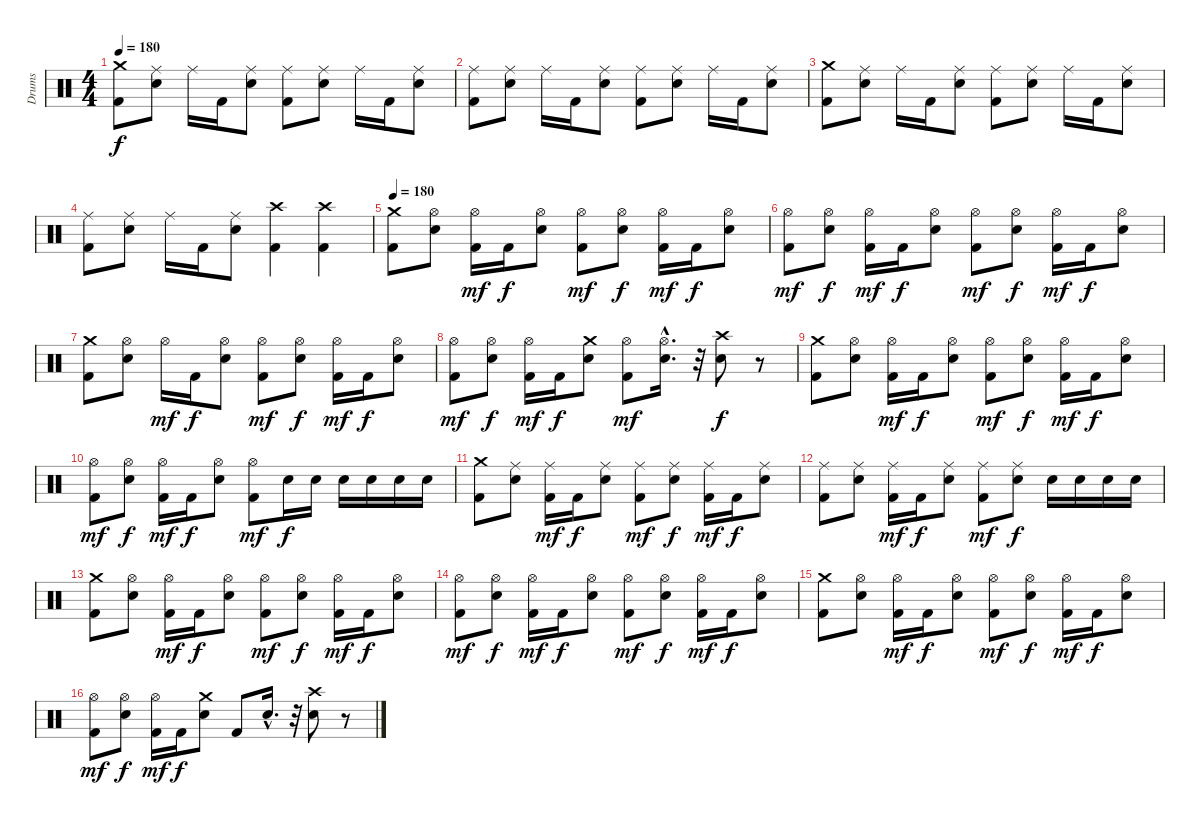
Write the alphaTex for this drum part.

\track ("Drums" "Drums") {instrument percussion}
\staff {score}
\articulation defaults
\ts (4 4)
\tempo 180
\clef neutral
\ks c
("Crash medium (hit)" "Kick (hit) 2").8{dy f} ("Ride (middle)" "Electric Snare (hit)").8 "Ride (middle)".16 "Kick (hit) 2".16 ("Ride (middle)" "Electric Snare (hit)").8 ("Ride (middle)" "Kick (hit) 2").8 ("Ride (middle)" "Electric Snare (hit)").8 "Ride (middle)".16 "Kick (hit) 2".16 ("Ride (middle)" "Electric Snare (hit)").8 |
("Ride (middle)" "Kick (hit) 2").8 ("Ride (middle)" "Electric Snare (hit)").8 "Ride (middle)".16 "Kick (hit) 2".16 ("Ride (middle)" "Electric Snare (hit)").8 ("Ride (middle)" "Kick (hit) 2").8 ("Ride (middle)" "Electric Snare (hit)").8 "Ride (middle)".16 "Kick (hit) 2".16 ("Ride (middle)" "Electric Snare (hit)").8 |
("Crash medium (hit)" "Kick (hit) 2").8 ("Ride (middle)" "Electric Snare (hit)").8 "Ride (middle)".16 "Kick (hit) 2".16 ("Ride (middle)" "Electric Snare (hit)").8 ("Ride (middle)" "Kick (hit) 2").8 ("Ride (middle)" "Electric Snare (hit)").8 "Ride (middle)".16 "Kick (hit) 2".16 ("Ride (middle)" "Electric Snare (hit)").8 |
("Ride (middle)" "Kick (hit) 2").8 ("Ride (middle)" "Electric Snare (hit)").8 "Ride (middle)".16 "Kick (hit) 2".16 ("Ride (middle)" "Electric Snare (hit)").8 ("Crash high (hit)" "Kick (hit) 2").4 ("Crash high (hit)" "Kick (hit) 2").4 |
\tempo 180
("Crash medium (hit)" "Kick (hit) 2").8 ("Hi-Hat (open)" "Electric Snare (hit)").8 ("Hi-Hat (open)" "Kick (hit) 2").16{dy mf} "Kick (hit) 2".16{dy f} ("Hi-Hat (open)" "Electric Snare (hit)").8 ("Hi-Hat (open)" "Kick (hit) 2").8{dy mf} ("Hi-Hat (open)" "Electric Snare (hit)").8{dy f} ("Hi-Hat (open)" "Kick (hit) 2").16{dy mf} "Kick (hit) 2".16{dy f} ("Hi-Hat (open)" "Electric Snare (hit)").8 |
("Hi-Hat (open)" "Kick (hit) 2").8{dy mf} ("Hi-Hat (open)" "Electric Snare (hit)").8{dy f} ("Hi-Hat (open)" "Kick (hit) 2").16{dy mf} "Kick (hit) 2".16{dy f} ("Hi-Hat (open)" "Electric Snare (hit)").8 ("Hi-Hat (open)" "Kick (hit) 2").8{dy mf} ("Hi-Hat (open)" "Electric Snare (hit)").8{dy f} ("Hi-Hat (open)" "Kick (hit) 2").16{dy mf} "Kick (hit) 2".16{dy f} ("Hi-Hat (open)" "Electric Snare (hit)").8 |
("Crash medium (hit)" "Kick (hit) 2").8 ("Hi-Hat (open)" "Electric Snare (hit)").8 "Hi-Hat (open)".16{dy mf} "Kick (hit) 2".16{dy f} ("Hi-Hat (open)" "Electric Snare (hit)").8 ("Hi-Hat (open)" "Kick (hit) 2").8{dy mf} ("Hi-Hat (open)" "Electric Snare (hit)").8{dy f} ("Hi-Hat (open)" "Kick (hit) 2").16{dy mf} "Kick (hit) 2".16{dy f} ("Hi-Hat (open)" "Electric Snare (hit)").8 |
("Hi-Hat (open)" "Kick (hit) 2").8{dy mf} ("Hi-Hat (open)" "Electric Snare (hit)").8{dy f} ("Hi-Hat (open)" "Kick (hit) 2").16{dy mf} "Kick (hit) 2".16{dy f} ("Crash medium (hit)" "Electric Snare (hit)").8 ("Hi-Hat (open)" "Kick (hit) 2").8{dy mf} ("Hi-Hat (open)"{hac} "Electric Snare (hit)"{hac}).16{d} r.32 ("Crash high (hit)" "Electric Snare (hit)").8{dy f} r.8 |
("Crash medium (hit)" "Kick (hit) 2").8 ("Hi-Hat (open)" "Electric Snare (hit)").8 ("Hi-Hat (open)" "Kick (hit) 2").16{dy mf} "Kick (hit) 2".16{dy f} ("Hi-Hat (open)" "Electric Snare (hit)").8 ("Hi-Hat (open)" "Kick (hit) 2").8{dy mf} ("Hi-Hat (open)" "Electric Snare (hit)").8{dy f} ("Hi-Hat (open)" "Kick (hit) 2").16{dy mf} "Kick (hit) 2".16{dy f} ("Hi-Hat (open)" "Electric Snare (hit)").8 |
("Hi-Hat (open)" "Kick (hit) 2").8{dy mf} ("Hi-Hat (open)" "Electric Snare (hit)").8{dy f} ("Hi-Hat (open)" "Kick (hit) 2").16{dy mf} "Kick (hit) 2".16{dy f} ("Hi-Hat (open)" "Electric Snare (hit)").8 ("Hi-Hat (open)" "Kick (hit) 2").8{dy mf} "Electric Snare (hit)".16{dy f} "Electric Snare (hit)".16 "Electric Snare (hit)".16 "Electric Snare (hit)".16 "Electric Snare (hit)".16 "Electric Snare (hit)".16 |
("Crash medium (hit)" "Kick (hit) 2").8 ("Ride (middle)" "Electric Snare (hit)").8 ("Ride (middle)" "Kick (hit) 2").16{dy mf} "Kick (hit) 2".16{dy f} ("Ride (middle)" "Electric Snare (hit)").8 ("Ride (middle)" "Kick (hit) 2").8{dy mf} ("Ride (middle)" "Electric Snare (hit)").8{dy f} ("Ride (middle)" "Kick (hit) 2").16{dy mf} "Kick (hit) 2".16{dy f} ("Ride (middle)" "Electric Snare (hit)").8 |
("Ride (middle)" "Kick (hit) 2").8 ("Ride (middle)" "Electric Snare (hit)").8 ("Ride (middle)" "Kick (hit) 2").16{dy mf} "Kick (hit) 2".16{dy f} ("Ride (middle)" "Electric Snare (hit)").8 ("Ride (middle)" "Kick (hit) 2").8{dy mf} ("Ride (middle)" "Electric Snare (hit)").8{dy f} "Electric Snare (hit)".16 "Electric Snare (hit)".16 "Electric Snare (hit)".16 "Electric Snare (hit)".16 |
("Crash medium (hit)" "Kick (hit) 2").8 ("Hi-Hat (open)" "Electric Snare (hit)").8 ("Hi-Hat (open)" "Kick (hit) 2").16{dy mf} "Kick (hit) 2".16{dy f} ("Hi-Hat (open)" "Electric Snare (hit)").8 ("Hi-Hat (open)" "Kick (hit) 2").8{dy mf} ("Hi-Hat (open)" "Electric Snare (hit)").8{dy f} ("Hi-Hat (open)" "Kick (hit) 2").16{dy mf} "Kick (hit) 2".16{dy f} ("Hi-Hat (open)" "Electric Snare (hit)").8 |
("Hi-Hat (open)" "Kick (hit) 2").8{dy mf} ("Hi-Hat (open)" "Electric Snare (hit)").8{dy f} ("Hi-Hat (open)" "Kick (hit) 2").16{dy mf} "Kick (hit) 2".16{dy f} ("Hi-Hat (open)" "Electric Snare (hit)").8 ("Hi-Hat (open)" "Kick (hit) 2").8{dy mf} ("Hi-Hat (open)" "Electric Snare (hit)").8{dy f} ("Hi-Hat (open)" "Kick (hit) 2").16{dy mf} "Kick (hit) 2".16{dy f} ("Hi-Hat (open)" "Electric Snare (hit)").8 |
("Crash medium (hit)" "Kick (hit) 2").8 ("Hi-Hat (open)" "Electric Snare (hit)").8 ("Hi-Hat (open)" "Kick (hit) 2").16{dy mf} "Kick (hit) 2".16{dy f} ("Hi-Hat (open)" "Electric Snare (hit)").8 ("Hi-Hat (open)" "Kick (hit) 2").8{dy mf} ("Hi-Hat (open)" "Electric Snare (hit)").8{dy f} ("Hi-Hat (open)" "Kick (hit) 2").16{dy mf} "Kick (hit) 2".16{dy f} ("Hi-Hat (open)" "Electric Snare (hit)").8 |
("Hi-Hat (open)" "Kick (hit) 2").8{dy mf} ("Hi-Hat (open)" "Electric Snare (hit)").8{dy f} ("Hi-Hat (open)" "Kick (hit) 2").16{dy mf} "Kick (hit) 2".16{dy f} ("Crash medium (hit)" "Electric Snare (hit)").8 "Kick (hit) 2".8 "Electric Snare (hit)"{hac}.16{d} r.32 ("Crash high (hit)" "Electric Snare (hit)").8 r.8
